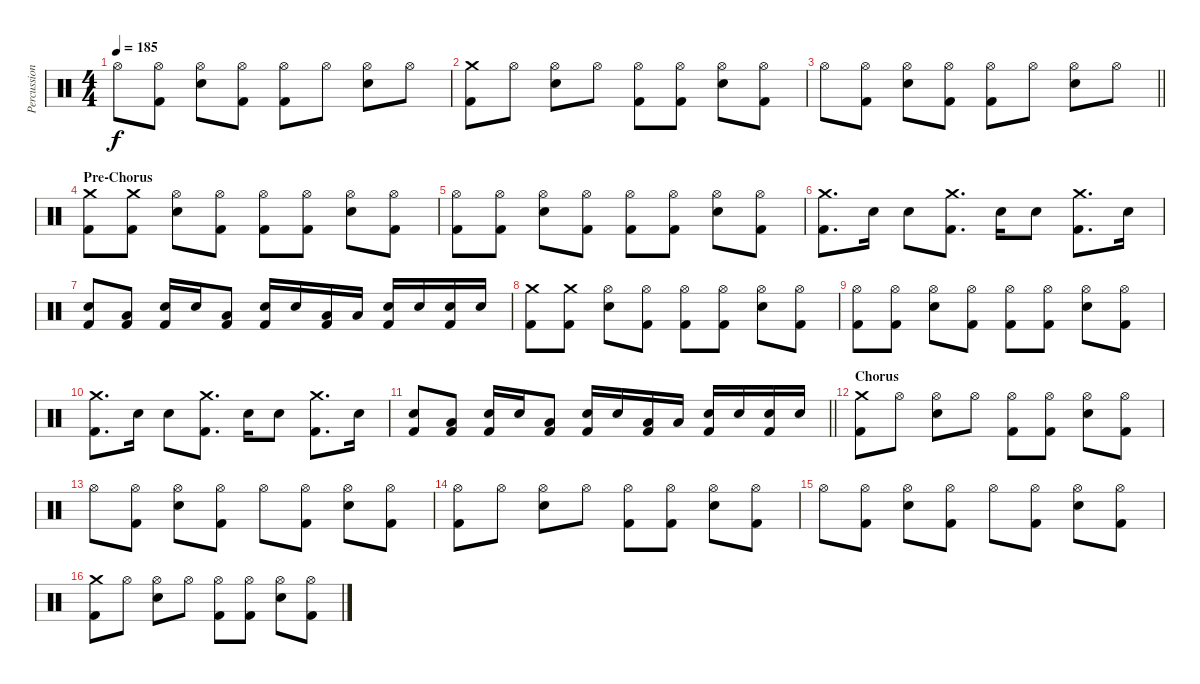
\track ("Percussion" "Percussion") {instrument percussion}
\staff {score}
\articulation defaults
\ts (4 4)
\tempo 185
\clef neutral
\ks c "Hi-Hat (open)".8{dy f}
("Hi-Hat (open)" "Kick (hit) 2").8 ("Hi-Hat (open)" "Electric Snare (hit)").8 ("Hi-Hat (open)" "Kick (hit) 2").8 ("Hi-Hat (open)" "Kick (hit) 2").8 "Hi-Hat (open)".8 ("Hi-Hat (open)" "Electric Snare (hit)").8 "Hi-Hat (open)".8 |
("Crash medium (hit)" "Kick (hit) 2").8 "Hi-Hat (open)".8 ("Hi-Hat (open)" "Electric Snare (hit)").8 "Hi-Hat (open)".8 ("Hi-Hat (open)" "Kick (hit) 2").8 ("Hi-Hat (open)" "Kick (hit) 2").8 ("Hi-Hat (open)" "Electric Snare (hit)").8 ("Hi-Hat (open)" "Kick (hit) 2").8 |
\barLineRight lightlight "Hi-Hat (open)".8
("Hi-Hat (open)" "Kick (hit) 2").8 ("Hi-Hat (open)" "Electric Snare (hit)").8 ("Hi-Hat (open)" "Kick (hit) 2").8 ("Hi-Hat (open)" "Kick (hit) 2").8 "Hi-Hat (open)".8 ("Hi-Hat (open)" "Electric Snare (hit)").8 "Hi-Hat (open)".8 |
\section ("" "Pre-Chorus")
("Crash medium (hit)" "Kick (hit) 2").8 ("Crash medium (hit)" "Kick (hit) 2").8 ("Hi-Hat (open)" "Electric Snare (hit)").8 ("Hi-Hat (open)" "Kick (hit) 2").8 ("Hi-Hat (open)" "Kick (hit) 2").8 ("Hi-Hat (open)" "Kick (hit) 2").8 ("Hi-Hat (open)" "Electric Snare (hit)").8 ("Hi-Hat (open)" "Kick (hit) 2").8 |
("Hi-Hat (open)" "Kick (hit) 2").8 ("Hi-Hat (open)" "Kick (hit) 2").8 ("Hi-Hat (open)" "Electric Snare (hit)").8 ("Hi-Hat (open)" "Kick (hit) 2").8 ("Hi-Hat (open)" "Kick (hit) 2").8 ("Hi-Hat (open)" "Kick (hit) 2").8 ("Hi-Hat (open)" "Electric Snare (hit)").8 ("Hi-Hat (open)" "Kick (hit) 2").8 |
("Crash medium (hit)" "Kick (hit) 2").8{d} "Electric Snare (hit)".16 "Electric Snare (hit)".8 ("Crash medium (hit)" "Kick (hit) 2").8{d} "Electric Snare (hit)".16 "Electric Snare (hit)".8 ("Crash medium (hit)" "Kick (hit) 2").8{d} "Electric Snare (hit)".16 |
("Electric Snare (hit)" "Kick (hit) 2").8 ("Low Floor Tom (hit)" "Kick (hit) 2").8 ("Electric Snare (hit)" "Kick (hit) 2").16 "Electric Snare (hit)".16 ("Low Floor Tom (hit)" "Kick (hit) 2").8 ("Electric Snare (hit)" "Kick (hit) 2").16 "Electric Snare (hit)".16 ("Low Floor Tom (hit)" "Kick (hit) 2").16 "Low Floor Tom (hit)".16 ("Electric Snare (hit)" "Kick (hit) 2").16 "Electric Snare (hit)".16 ("Electric Snare (hit)" "Kick (hit) 2").16 "Electric Snare (hit)".16 |
("Crash medium (hit)" "Kick (hit) 2").8 ("Crash medium (hit)" "Kick (hit) 2").8 ("Hi-Hat (open)" "Electric Snare (hit)").8 ("Hi-Hat (open)" "Kick (hit) 2").8 ("Hi-Hat (open)" "Kick (hit) 2").8 ("Hi-Hat (open)" "Kick (hit) 2").8 ("Hi-Hat (open)" "Electric Snare (hit)").8 ("Hi-Hat (open)" "Kick (hit) 2").8 |
("Hi-Hat (open)" "Kick (hit) 2").8 ("Hi-Hat (open)" "Kick (hit) 2").8 ("Hi-Hat (open)" "Electric Snare (hit)").8 ("Hi-Hat (open)" "Kick (hit) 2").8 ("Hi-Hat (open)" "Kick (hit) 2").8 ("Hi-Hat (open)" "Kick (hit) 2").8 ("Hi-Hat (open)" "Electric Snare (hit)").8 ("Hi-Hat (open)" "Kick (hit) 2").8 |
("Crash medium (hit)" "Kick (hit) 2").8{d} "Electric Snare (hit)".16 "Electric Snare (hit)".8 ("Crash medium (hit)" "Kick (hit) 2").8{d} "Electric Snare (hit)".16 "Electric Snare (hit)".8 ("Crash medium (hit)" "Kick (hit) 2").8{d} "Electric Snare (hit)".16 |
\barLineRight lightlight
("Electric Snare (hit)" "Kick (hit) 2").8 ("Low Floor Tom (hit)" "Kick (hit) 2").8 ("Electric Snare (hit)" "Kick (hit) 2").16 "Electric Snare (hit)".16 ("Low Floor Tom (hit)" "Kick (hit) 2").8 ("Electric Snare (hit)" "Kick (hit) 2").16 "Electric Snare (hit)".16 ("Low Floor Tom (hit)" "Kick (hit) 2").16 "Low Floor Tom (hit)".16 ("Electric Snare (hit)" "Kick (hit) 2").16 "Electric Snare (hit)".16 ("Electric Snare (hit)" "Kick (hit) 2").16 "Electric Snare (hit)".16 |
\section ("" "Chorus")
("Crash medium (hit)" "Kick (hit) 2").8 "Hi-Hat (open)".8 ("Hi-Hat (open)" "Electric Snare (hit)").8 "Hi-Hat (open)".8 ("Hi-Hat (open)" "Kick (hit) 2").8 ("Hi-Hat (open)" "Kick (hit) 2").8 ("Hi-Hat (open)" "Electric Snare (hit)").8 ("Hi-Hat (open)" "Kick (hit) 2").8 |
"Hi-Hat (open)".8 ("Hi-Hat (open)" "Kick (hit) 2").8 ("Hi-Hat (open)" "Electric Snare (hit)").8 ("Hi-Hat (open)" "Kick (hit) 2").8 "Hi-Hat (open)".8 ("Hi-Hat (open)" "Kick (hit) 2").8 ("Hi-Hat (open)" "Electric Snare (hit)").8 ("Hi-Hat (open)" "Kick (hit) 2").8 |
("Hi-Hat (open)" "Kick (hit) 2").8 "Hi-Hat (open)".8 ("Hi-Hat (open)" "Electric Snare (hit)").8 "Hi-Hat (open)".8 ("Hi-Hat (open)" "Kick (hit) 2").8 ("Hi-Hat (open)" "Kick (hit) 2").8 ("Hi-Hat (open)" "Electric Snare (hit)").8 ("Hi-Hat (open)" "Kick (hit) 2").8 |
"Hi-Hat (open)".8 ("Hi-Hat (open)" "Kick (hit) 2").8 ("Hi-Hat (open)" "Electric Snare (hit)").8 ("Hi-Hat (open)" "Kick (hit) 2").8 "Hi-Hat (open)".8 ("Hi-Hat (open)" "Kick (hit) 2").8 ("Hi-Hat (open)" "Electric Snare (hit)").8 ("Hi-Hat (open)" "Kick (hit) 2").8 |
("Crash medium (hit)" "Kick (hit) 2").8 "Hi-Hat (open)".8 ("Hi-Hat (open)" "Electric Snare (hit)").8 "Hi-Hat (open)".8 ("Hi-Hat (open)" "Kick (hit) 2").8 ("Hi-Hat (open)" "Kick (hit) 2").8 ("Hi-Hat (open)" "Electric Snare (hit)").8 ("Hi-Hat (open)" "Kick (hit) 2").8
